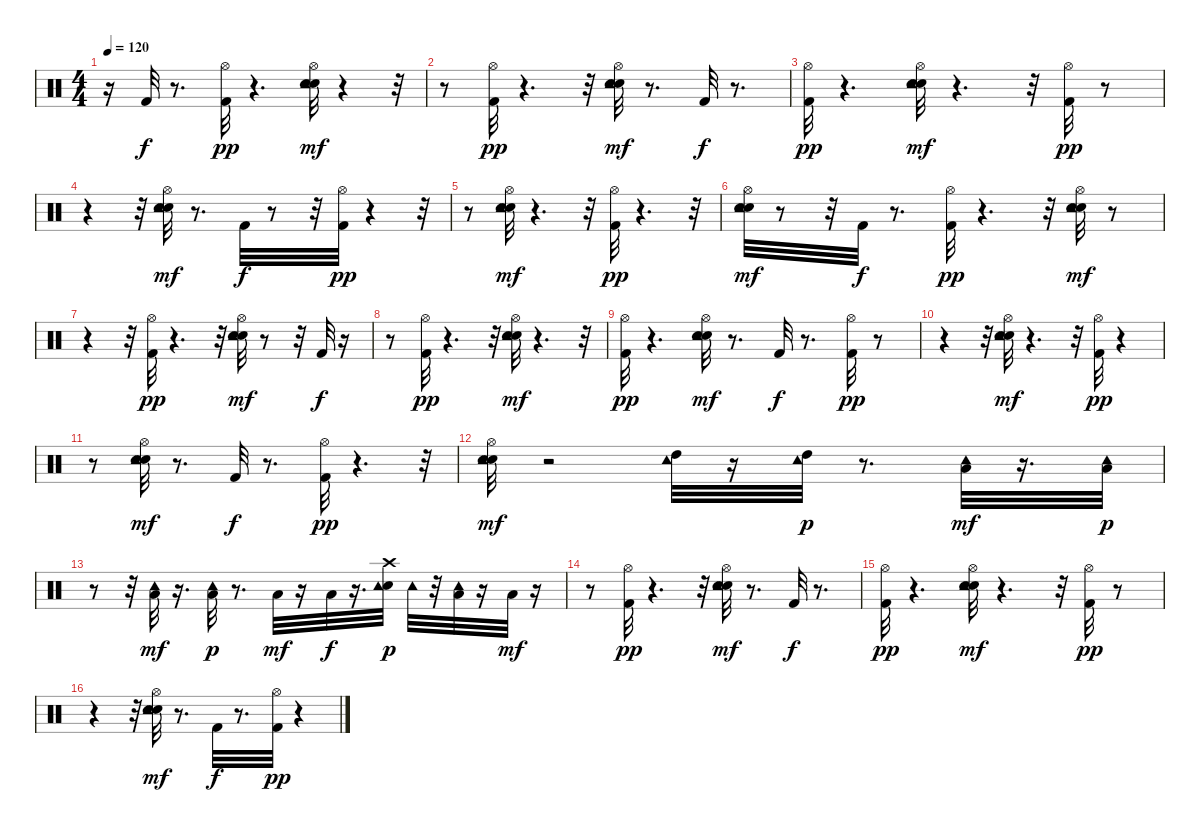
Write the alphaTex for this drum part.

\track "" {instrument percussion}
\staff {score}
\articulation defaults
\ts (4 4)
\tempo 120
\clef neutral
\ks c
r.16{dy mf} "Kick (hit) 2".32{dy f} r.8{d} ("Kick (hit) 2" "Hi-Hat (open)").32{dy pp} r.4{d} ("Snare (hit) 2" "Electric Snare (hit)" "Hi-Hat (open)" "Tambourine (hit)").32{dy mf} r.4 r.32 |
r.8 ("Kick (hit) 2" "Hi-Hat (open)").32{dy pp} r.4{d} r.32 ("Snare (hit) 2" "Electric Snare (hit)" "Hi-Hat (open)" "Tambourine (hit)").32{dy mf} r.8{d} "Kick (hit) 2".32{dy f} r.8{d} |
("Kick (hit) 2" "Hi-Hat (open)").32{dy pp} r.4{d} ("Snare (hit) 2" "Electric Snare (hit)" "Hi-Hat (open)" "Tambourine (hit)").32{dy mf} r.4{d} r.32 ("Kick (hit) 2" "Hi-Hat (open)").32{dy pp} r.8 |
r.4 r.32 ("Snare (hit) 2" "Electric Snare (hit)" "Hi-Hat (open)" "Tambourine (hit)").32{dy mf} r.8{d} "Kick (hit) 2".32{dy f} r.8 r.32 ("Kick (hit) 2" "Hi-Hat (open)").32{dy pp} r.4 r.32 |
r.8 ("Snare (hit) 2" "Electric Snare (hit)" "Hi-Hat (open)" "Tambourine (hit)").32{dy mf} r.4{d} r.32 ("Kick (hit) 2" "Hi-Hat (open)").32{dy pp} r.4{d} r.32 |
("Snare (hit) 2" "Electric Snare (hit)" "Hi-Hat (open)" "Tambourine (hit)").32{dy mf} r.8 r.32 "Kick (hit) 2".32{dy f} r.8{d} ("Kick (hit) 2" "Hi-Hat (open)").32{dy pp} r.4{d} r.32 ("Snare (hit) 2" "Electric Snare (hit)" "Hi-Hat (open)" "Tambourine (hit)").32{dy mf} r.8 |
r.4 r.32 ("Kick (hit) 2" "Hi-Hat (open)").32{dy pp} r.4{d} r.32 ("Snare (hit) 2" "Electric Snare (hit)" "Hi-Hat (open)" "Tambourine (hit)").32{dy mf} r.8 r.32 "Kick (hit) 2".32{dy f} r.16 |
r.8 ("Kick (hit) 2" "Hi-Hat (open)").32{dy pp} r.4{d} r.32 ("Snare (hit) 2" "Electric Snare (hit)" "Hi-Hat (open)" "Tambourine (hit)").32{dy mf} r.4{d} r.32 |
("Kick (hit) 2" "Hi-Hat (open)").32{dy pp} r.4{d} ("Snare (hit) 2" "Electric Snare (hit)" "Hi-Hat (open)" "Tambourine (hit)").32{dy mf} r.8{d} "Kick (hit) 2".32{dy f} r.8{d} ("Kick (hit) 2" "Hi-Hat (open)").32{dy pp} r.8 |
r.4 r.32 ("Snare (hit) 2" "Electric Snare (hit)" "Hi-Hat (open)" "Tambourine (hit)").32{dy mf} r.4{d} r.32 ("Kick (hit) 2" "Hi-Hat (open)").32{dy pp} r.4 |
r.8 ("Snare (hit) 2" "Electric Snare (hit)" "Hi-Hat (open)" "Tambourine (hit)").32{dy mf} r.8{d} "Kick (hit) 2".32{dy f} r.8{d} ("Kick (hit) 2" "Hi-Hat (open)").32{dy pp} r.4{d} r.32 |
("Snare (hit) 2" "Electric Snare (hit)" "Hi-Hat (open)" "Tambourine (hit)").32{dy mf} r.2 ("High Tom (hit)" "Tambourine (hit)").32 r.16 ("High Tom (hit)" "Tambourine (hit)").32{dy p} r.8{d} ("Low Tom (hit)" "Tambourine (hit)").32{dy mf} r.16{d} ("Low Tom (hit)" "Tambourine (hit)").32{dy p} |
r.8 r.32 ("Low Floor Tom (hit)" "Tambourine (hit)").32{dy mf} r.16{d} ("Low Floor Tom (hit)" "Tambourine (hit)").32{dy p} r.8{d} "Low Floor Tom (hit)".32{dy mf} r.16 "Low Floor Tom (hit)".32{dy f} r.16{d} ("Snare (hit) 2" "Crash high (hit)" "Tambourine (hit)").32{dy p} "Tambourine (hit)".32 r.32 ("Low Floor Tom (hit)" "Tambourine (hit)").32 r.16 "Low Tom (hit)".32{dy mf} r.16 |
r.8 ("Kick (hit) 2" "Hi-Hat (open)").32{dy pp} r.4{d} r.32 ("Snare (hit) 2" "Electric Snare (hit)" "Hi-Hat (open)" "Tambourine (hit)").32{dy mf} r.8{d} "Kick (hit) 2".32{dy f} r.8{d} |
("Kick (hit) 2" "Hi-Hat (open)").32{dy pp} r.4{d} ("Snare (hit) 2" "Electric Snare (hit)" "Hi-Hat (open)" "Tambourine (hit)").32{dy mf} r.4{d} r.32 ("Kick (hit) 2" "Hi-Hat (open)").32{dy pp} r.8 |
r.4 r.32 ("Snare (hit) 2" "Electric Snare (hit)" "Hi-Hat (open)" "Tambourine (hit)").32{dy mf} r.8{d} "Kick (hit) 2".32{dy f} r.8{d} ("Kick (hit) 2" "Hi-Hat (open)").32{dy pp} r.4
